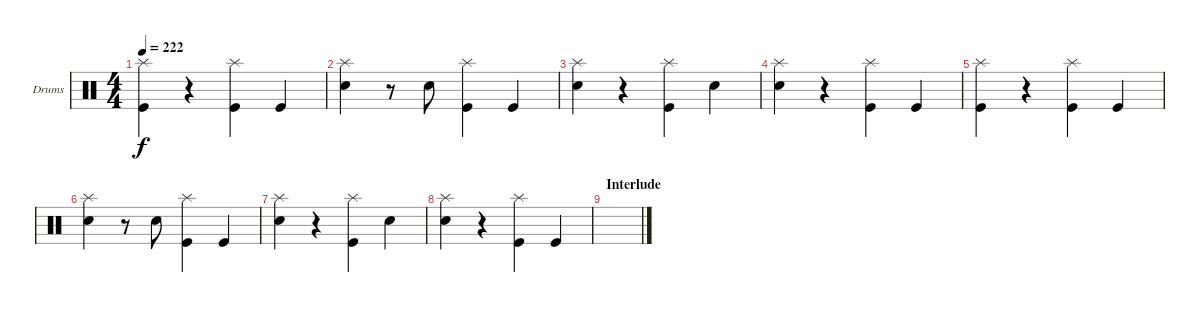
\defaultSystemsLayout 4
\bracketExtendMode groupsimilarinstruments
\firstSystemTrackNameOrientation horizontal
\otherSystemsTrackNameOrientation horizontal
\track ("Drumkit" "Drums") {mute instrument percussion}
\staff {score}
\articulation defaults
\ts (4 4)
\tempo 222
\clef neutral
\ks c
("Kick (hit)" "Splash (hit)").4{dy f} r.4 ("Kick (hit)" "Splash (hit)").4 "Kick (hit)".4 |
("Snare (hit) 2" "Splash (hit)").4 r.8 "Snare (hit) 2".8 ("Splash (hit)" "Kick (hit)").4 "Kick (hit)".4 |
("Splash (hit)" "Snare (hit) 2").4 r.4 ("Splash (hit)" "Kick (hit)").4 "Snare (hit) 2".4 |
("Snare (hit) 2" "Splash (hit)").4 r.4 ("Splash (hit)" "Kick (hit)").4 "Kick (hit)".4 |
("Kick (hit)" "Splash (hit)").4 r.4 ("Kick (hit)" "Splash (hit)").4 "Kick (hit)".4 |
("Snare (hit) 2" "Splash (hit)").4 r.8 "Snare (hit) 2".8 ("Splash (hit)" "Kick (hit)").4 "Kick (hit)".4 |
("Splash (hit)" "Snare (hit) 2").4 r.4 ("Splash (hit)" "Kick (hit)").4 "Snare (hit) 2".4 |
("Snare (hit) 2" "Splash (hit)").4 r.4 ("Splash (hit)" "Kick (hit)").4 "Kick (hit)".4 |
\section ("" "Interlude")
